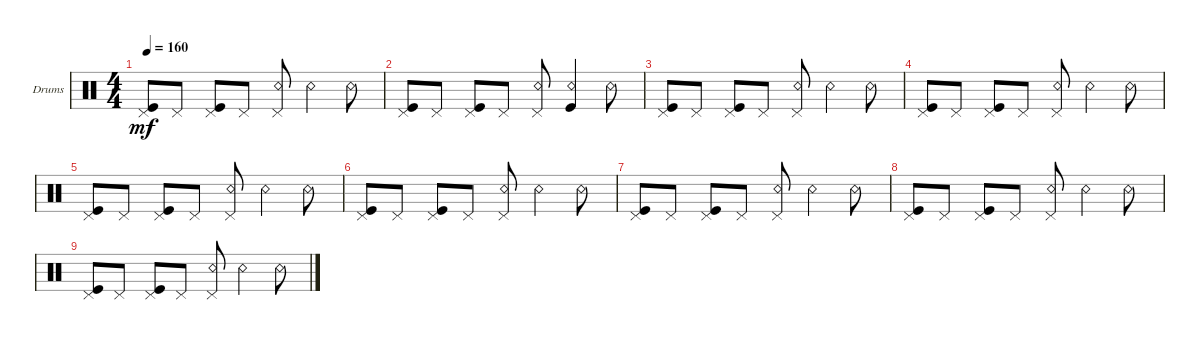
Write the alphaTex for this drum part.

\bracketExtendMode groupsimilarinstruments
\firstSystemTrackNameOrientation horizontal
\otherSystemsTrackNameOrientation horizontal
\track ("Drumkit" "Drums") {instrument percussion}
\staff {score}
\articulation defaults
\ts (4 4)
\tempo 160
\clef neutral
\ks c
("Pedal Hi-Hat (hit)" "Kick (hit)").8{dy mf} "Pedal Hi-Hat (hit)".8 ("Pedal Hi-Hat (hit)" "Kick (hit)").8 "Pedal Hi-Hat (hit)".8 ("Pedal Hi-Hat (hit)" "Snare (rim shot)").8 "Snare (rim shot)".4 "Snare (rim shot)".8 |
("Pedal Hi-Hat (hit)" "Kick (hit)").8 "Pedal Hi-Hat (hit)".8 ("Pedal Hi-Hat (hit)" "Kick (hit)").8 "Pedal Hi-Hat (hit)".8 ("Pedal Hi-Hat (hit)" "Snare (rim shot)").8 ("Snare (rim shot)" "Kick (hit)").4 "Snare (rim shot)".8 |
("Pedal Hi-Hat (hit)" "Kick (hit)").8 "Pedal Hi-Hat (hit)".8 ("Pedal Hi-Hat (hit)" "Kick (hit)").8 "Pedal Hi-Hat (hit)".8 ("Pedal Hi-Hat (hit)" "Snare (rim shot)").8 "Snare (rim shot)".4 "Snare (rim shot)".8 |
("Pedal Hi-Hat (hit)" "Kick (hit)").8 "Pedal Hi-Hat (hit)".8 ("Pedal Hi-Hat (hit)" "Kick (hit)").8 "Pedal Hi-Hat (hit)".8 ("Pedal Hi-Hat (hit)" "Snare (rim shot)").8 "Snare (rim shot)".4 "Snare (rim shot)".8 |
("Pedal Hi-Hat (hit)" "Kick (hit)").8 "Pedal Hi-Hat (hit)".8 ("Pedal Hi-Hat (hit)" "Kick (hit)").8 "Pedal Hi-Hat (hit)".8 ("Pedal Hi-Hat (hit)" "Snare (rim shot)").8 "Snare (rim shot)".4 "Snare (rim shot)".8 |
("Pedal Hi-Hat (hit)" "Kick (hit)").8 "Pedal Hi-Hat (hit)".8 ("Pedal Hi-Hat (hit)" "Kick (hit)").8 "Pedal Hi-Hat (hit)".8 ("Pedal Hi-Hat (hit)" "Snare (rim shot)").8 "Snare (rim shot)".4 "Snare (rim shot)".8 |
("Pedal Hi-Hat (hit)" "Kick (hit)").8 "Pedal Hi-Hat (hit)".8 ("Pedal Hi-Hat (hit)" "Kick (hit)").8 "Pedal Hi-Hat (hit)".8 ("Pedal Hi-Hat (hit)" "Snare (rim shot)").8 "Snare (rim shot)".4 "Snare (rim shot)".8 |
("Pedal Hi-Hat (hit)" "Kick (hit)").8 "Pedal Hi-Hat (hit)".8 ("Pedal Hi-Hat (hit)" "Kick (hit)").8 "Pedal Hi-Hat (hit)".8 ("Pedal Hi-Hat (hit)" "Snare (rim shot)").8 "Snare (rim shot)".4 "Snare (rim shot)".8 |
("Pedal Hi-Hat (hit)" "Kick (hit)").8 "Pedal Hi-Hat (hit)".8 ("Pedal Hi-Hat (hit)" "Kick (hit)").8 "Pedal Hi-Hat (hit)".8 ("Pedal Hi-Hat (hit)" "Snare (rim shot)").8 "Snare (rim shot)".4 "Snare (rim shot)".8
